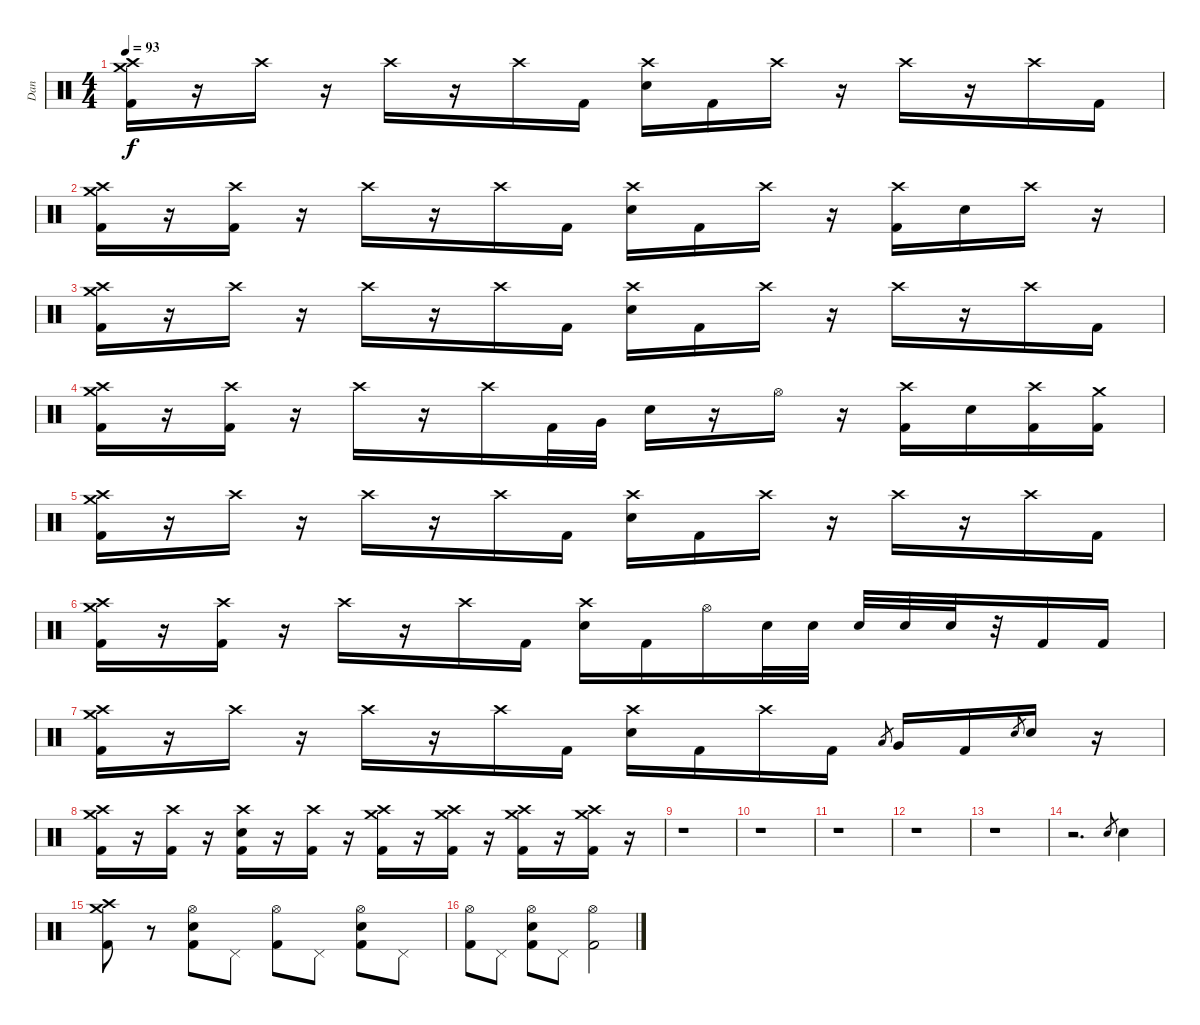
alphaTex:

\track ("Dan" "Dan") {instrument percussion}
\staff {score}
\articulation defaults
\ts (4 4)
\tempo 93
\clef neutral
\ks c
("Crash high (hit)" "Crash medium (hit)" "Kick (hit) 2").16{dy f} r.16 "Crash high (hit)".16 r.16 "Crash high (hit)".16 r.16 "Crash high (hit)".16 "Kick (hit) 2".16 ("Crash high (hit)" "Electric Snare (hit)").16 "Kick (hit) 2".16 "Crash high (hit)".16 r.16 "Crash high (hit)".16 r.16 "Crash high (hit)".16 "Kick (hit) 2".16 |
("Crash high (hit)" "Crash medium (hit)" "Kick (hit) 2").16 r.16 ("Crash high (hit)" "Kick (hit) 2").16 r.16 "Crash high (hit)".16 r.16 "Crash high (hit)".16 "Kick (hit) 2".16 ("Crash high (hit)" "Electric Snare (hit)").16 "Kick (hit) 2".16 "Crash high (hit)".16 r.16 ("Crash high (hit)" "Kick (hit) 2").16 "Electric Snare (hit)".16 "Crash high (hit)".16 r.16 |
("Crash high (hit)" "Crash medium (hit)" "Kick (hit) 2").16 r.16 "Crash high (hit)".16 r.16 "Crash high (hit)".16 r.16 "Crash high (hit)".16 "Kick (hit) 2".16 ("Crash high (hit)" "Electric Snare (hit)").16 "Kick (hit) 2".16 "Crash high (hit)".16 r.16 "Crash high (hit)".16 r.16 "Crash high (hit)".16 "Kick (hit) 2".16 |
("Crash high (hit)" "Crash medium (hit)" "Kick (hit) 2").16 r.16 ("Crash high (hit)" "Kick (hit) 2").16 r.16 "Crash high (hit)".16 r.16 "Crash high (hit)".16 "Kick (hit) 2".32 "Very Low Tom (hit)".32 "Electric Snare (hit)".16 r.16 "Hi-Hat (open)".16 r.16 ("Crash high (hit)" "Kick (hit) 2").16 "Electric Snare (hit)".16 ("Crash high (hit)" "Kick (hit) 2").16 ("Crash medium (hit)" "Kick (hit) 2").16 |
("Crash high (hit)" "Crash medium (hit)" "Kick (hit) 2").16 r.16 "Crash high (hit)".16 r.16 "Crash high (hit)".16 r.16 "Crash high (hit)".16 "Kick (hit) 2".16 ("Crash high (hit)" "Electric Snare (hit)").16 "Kick (hit) 2".16 "Crash high (hit)".16 r.16 "Crash high (hit)".16 r.16 "Crash high (hit)".16 "Kick (hit) 2".16 |
("Crash high (hit)" "Crash medium (hit)" "Kick (hit) 2").16 r.16 ("Crash high (hit)" "Kick (hit) 2").16 r.16 "Crash high (hit)".16 r.16 "Crash high (hit)".16 "Kick (hit) 2".16 ("Crash high (hit)" "Electric Snare (hit)").16 "Kick (hit) 2".16 "Hi-Hat (open)".16 "Electric Snare (hit)".32 "Electric Snare (hit)".32 "Electric Snare (hit)".32 "Electric Snare (hit)".32 "Electric Snare (hit)".32 r.32 "Kick (hit) 2".16 "Kick (hit) 2".16 |
("Crash high (hit)" "Crash medium (hit)" "Kick (hit) 2").16 r.16 "Crash high (hit)".16 r.16 "Crash high (hit)".16 r.16 "Crash high (hit)".16 "Kick (hit) 2".16 ("Crash high (hit)" "Electric Snare (hit)").16 "Kick (hit) 2".16 "Crash high (hit)".16 "Kick (hit) 2".16 "Low Tom (hit)".8{gr} "Very Low Tom (hit)".16 "Kick (hit) 2".16 "Electric Snare (hit)".8{gr} "Electric Snare (hit)".16 r.16 |
("Crash high (hit)" "Crash medium (hit)" "Kick (hit) 2").16 r.16 ("Crash high (hit)" "Kick (hit) 2").16 r.16 ("Crash high (hit)" "Electric Snare (hit)" "Kick (hit) 2").16 r.16 ("Crash high (hit)" "Kick (hit) 2").16 r.16 ("Crash high (hit)" "Crash medium (hit)" "Kick (hit) 2").16 r.16 ("Crash high (hit)" "Crash medium (hit)" "Kick (hit) 2").16 r.16 ("Crash high (hit)" "Crash medium (hit)" "Kick (hit) 2").16 r.16 ("Crash high (hit)" "Crash medium (hit)" "Kick (hit) 2").16 r.16 |
r.1{volume 0} |
r.1 |
r.1 |
r.1 |
r.1 |
r.2{d volume 13} "Electric Snare (hit)".8{gr} "Electric Snare (hit)".4 |
("Crash high (hit)" "Crash medium (hit)" "Kick (hit) 2").8 r.8 ("Hi-Hat (open)" "Electric Snare (hit)" "Kick (hit) 2").8 "Pedal Hi-Hat (hit)".8 ("Hi-Hat (open)" "Kick (hit) 2").8 "Pedal Hi-Hat (hit)".8 ("Hi-Hat (open)" "Electric Snare (hit)" "Kick (hit) 2").8 "Pedal Hi-Hat (hit)".8 |
("Hi-Hat (open)" "Kick (hit) 2").8 "Pedal Hi-Hat (hit)".8 ("Hi-Hat (open)" "Electric Snare (hit)" "Kick (hit) 2").8 "Pedal Hi-Hat (hit)".8 ("Hi-Hat (open)" "Kick (hit) 2").2
